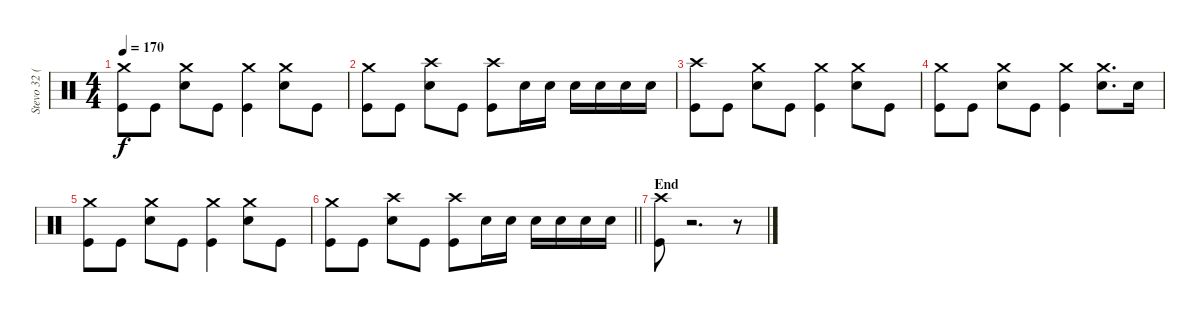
\track ("Stevo 32 (Drums)" "Stevo 32 (") {instrument percussion}
\staff {score}
\articulation defaults
\ts (4 4)
\tempo 170
\clef neutral
\ks c
("Crash medium (hit)" "Kick (hit)").8{dy f} "Kick (hit)".8 ("Crash medium (hit)" "Electric Snare (hit)").8 "Kick (hit)".8 ("Crash medium (hit)" "Kick (hit)").4 ("Crash medium (hit)" "Electric Snare (hit)").8 "Kick (hit)".8 |
("Crash medium (hit)" "Kick (hit)").8 "Kick (hit)".8 ("Crash high (hit)" "Electric Snare (hit)").8 "Kick (hit)".8 ("Crash high (hit)" "Kick (hit)").8 "Electric Snare (hit)".16 "Electric Snare (hit)".16 "Electric Snare (hit)".16 "Electric Snare (hit)".16 "Electric Snare (hit)".16 "Electric Snare (hit)".16 |
("Crash high (hit)" "Kick (hit)").8 "Kick (hit)".8 ("Crash medium (hit)" "Electric Snare (hit)").8 "Kick (hit)".8 ("Crash medium (hit)" "Kick (hit)").4 ("Crash medium (hit)" "Electric Snare (hit)").8 "Kick (hit)".8 |
("Crash medium (hit)" "Kick (hit)").8 "Kick (hit)".8 ("Crash medium (hit)" "Electric Snare (hit)").8 "Kick (hit)".8 ("Crash medium (hit)" "Kick (hit)").4 ("Crash medium (hit)" "Electric Snare (hit)").8{d} "Electric Snare (hit)".16 |
("Crash medium (hit)" "Kick (hit)").8 "Kick (hit)".8 ("Crash medium (hit)" "Electric Snare (hit)").8 "Kick (hit)".8 ("Crash medium (hit)" "Kick (hit)").4 ("Crash medium (hit)" "Electric Snare (hit)").8 "Kick (hit)".8 |
\barLineRight lightlight
("Crash medium (hit)" "Kick (hit)").8 "Kick (hit)".8 ("Crash high (hit)" "Electric Snare (hit)").8 "Kick (hit)".8 ("Crash high (hit)" "Kick (hit)").8 "Electric Snare (hit)".16 "Electric Snare (hit)".16 "Electric Snare (hit)".16 "Electric Snare (hit)".16 "Electric Snare (hit)".16 "Electric Snare (hit)".16 |
\section ("" "End")
("Crash high (hit)" "Kick (hit)").8 r.2{d} r.8
